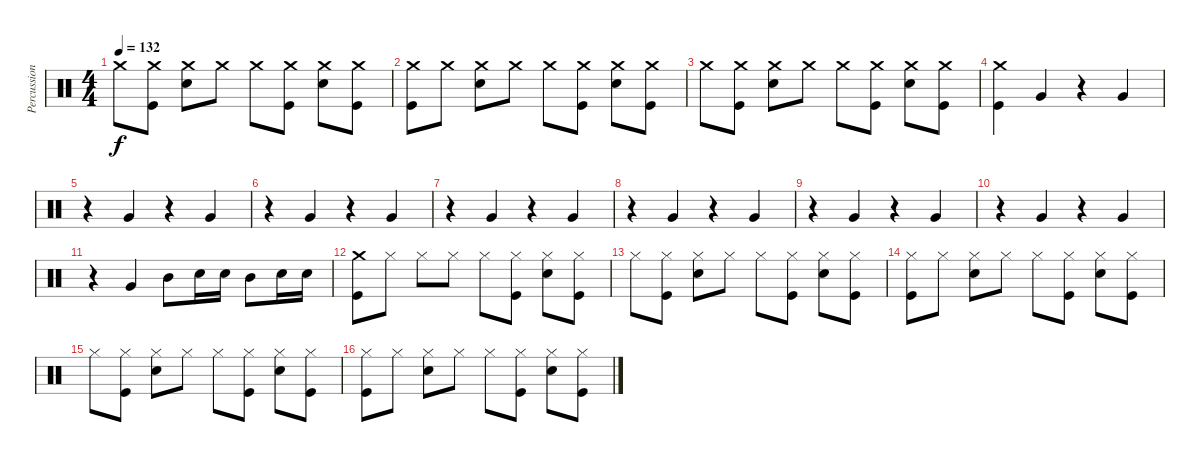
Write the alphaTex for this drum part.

\track ("Percussion" "Percussion") {instrument percussion}
\staff {score}
\articulation defaults
\ts (4 4)
\tempo 132
\clef neutral
\ks c "Crash medium (hit)".8{dy f}
("Crash medium (hit)" "Kick (hit)").8 ("Crash medium (hit)" "Snare (hit) 2").8 "Crash medium (hit)".8 "Crash medium (hit)".8 ("Crash medium (hit)" "Kick (hit)").8 ("Crash medium (hit)" "Snare (hit) 2").8 ("Crash medium (hit)" "Kick (hit)").8 |
("Crash medium (hit)" "Kick (hit)").8 "Crash medium (hit)".8 ("Crash medium (hit)" "Snare (hit) 2").8 "Crash medium (hit)".8 "Crash medium (hit)".8 ("Crash medium (hit)" "Kick (hit)").8 ("Crash medium (hit)" "Snare (hit) 2").8 ("Crash medium (hit)" "Kick (hit)").8 |
"Crash medium (hit)".8 ("Crash medium (hit)" "Kick (hit)").8 ("Crash medium (hit)" "Snare (hit) 2").8 "Crash medium (hit)".8 "Crash medium (hit)".8 ("Crash medium (hit)" "Kick (hit)").8 ("Crash medium (hit)" "Snare (hit) 2").8 ("Crash medium (hit)" "Kick (hit)").8 |
("Crash medium (hit)" "Kick (hit)").4 "Very Low Tom (hit)".4 r.4 "Very Low Tom (hit)".4 |
r.4 "Very Low Tom (hit)".4 r.4 "Very Low Tom (hit)".4 |
r.4 "Very Low Tom (hit)".4 r.4 "Very Low Tom (hit)".4 |
r.4 "Very Low Tom (hit)".4 r.4 "Very Low Tom (hit)".4 |
r.4 "Very Low Tom (hit)".4 r.4 "Very Low Tom (hit)".4 |
r.4 "Very Low Tom (hit)".4 r.4 "Very Low Tom (hit)".4 |
r.4 "Very Low Tom (hit)".4 r.4 "Very Low Tom (hit)".4 |
r.4 "Very Low Tom (hit)".4 "Mid Tom (hit)".8 "Snare (hit) 2".16 "Snare (hit) 2".16 "Mid Tom (hit)".8 "Snare (hit) 2".16 "Snare (hit) 2".16 |
("Crash medium (hit)" "Kick (hit)").8 "Hi-Hat (closed)".8 "Hi-Hat (closed)".8 "Hi-Hat (closed)".8 "Hi-Hat (closed)".8 ("Hi-Hat (closed)" "Kick (hit)").8 ("Hi-Hat (closed)" "Snare (hit) 2").8 ("Hi-Hat (closed)" "Kick (hit)").8 |
"Hi-Hat (closed)".8 ("Hi-Hat (closed)" "Kick (hit)").8 ("Hi-Hat (closed)" "Snare (hit) 2").8 "Hi-Hat (closed)".8 "Hi-Hat (closed)".8 ("Hi-Hat (closed)" "Kick (hit)").8 ("Hi-Hat (closed)" "Snare (hit) 2").8 ("Hi-Hat (closed)" "Kick (hit)").8 |
("Hi-Hat (closed)" "Kick (hit)").8 "Hi-Hat (closed)".8 ("Hi-Hat (closed)" "Snare (hit) 2").8 "Hi-Hat (closed)".8 "Hi-Hat (closed)".8 ("Hi-Hat (closed)" "Kick (hit)").8 ("Hi-Hat (closed)" "Snare (hit) 2").8 ("Hi-Hat (closed)" "Kick (hit)").8 |
"Hi-Hat (closed)".8 ("Hi-Hat (closed)" "Kick (hit)").8 ("Hi-Hat (closed)" "Snare (hit) 2").8 "Hi-Hat (closed)".8 "Hi-Hat (closed)".8 ("Hi-Hat (closed)" "Kick (hit)").8 ("Hi-Hat (closed)" "Snare (hit) 2").8 ("Hi-Hat (closed)" "Kick (hit)").8 |
("Hi-Hat (closed)" "Kick (hit)").8 "Hi-Hat (closed)".8 ("Hi-Hat (closed)" "Snare (hit) 2").8 "Hi-Hat (closed)".8 "Hi-Hat (closed)".8 ("Hi-Hat (closed)" "Kick (hit)").8 ("Hi-Hat (closed)" "Snare (hit) 2").8 ("Hi-Hat (closed)" "Kick (hit)").8
